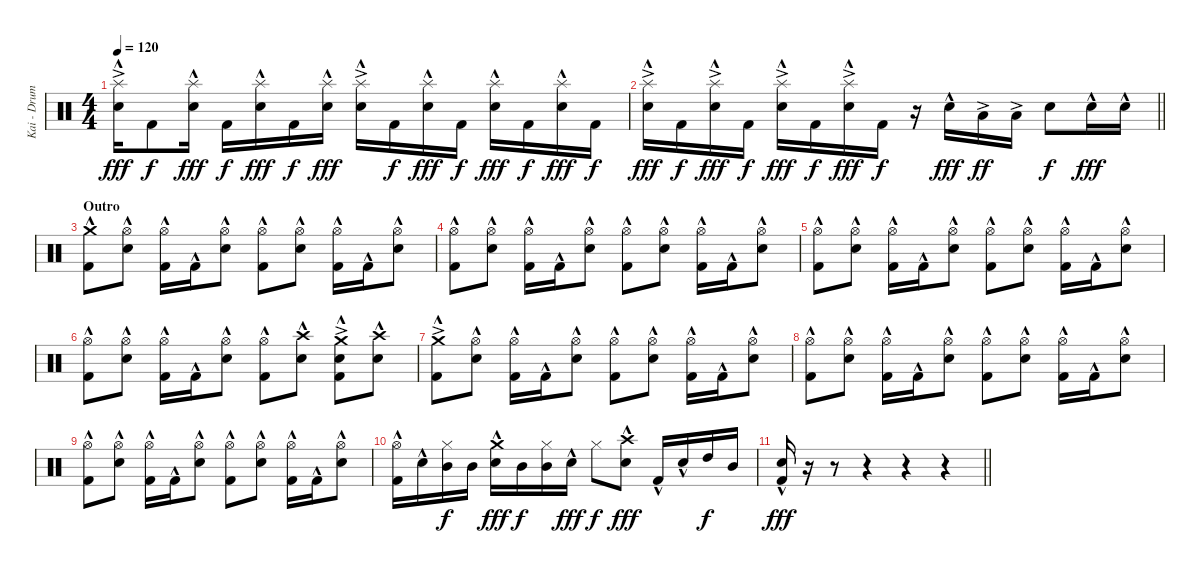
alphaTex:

\track ("Kai - Drums" "Kai - Drum") {instrument percussion}
\staff {score}
\articulation defaults
\ts (4 4)
\tempo 120
\clef neutral
\ks c
("Splash (hit)"{ac} "Electric Snare (hit)"{hac}).16{dy fff} "Kick (hit) 2".8{dy f} ("Splash (hit)" "Electric Snare (hit)"{hac}).16{dy fff} "Kick (hit) 2".16{dy f} ("Splash (hit)" "Electric Snare (hit)"{hac}).16{dy fff} "Kick (hit) 2".16{dy f} ("Splash (hit)" "Electric Snare (hit)"{hac}).16{dy fff} ("Splash (hit)"{ac} "Electric Snare (hit)"{hac}).16 "Kick (hit) 2".16{dy f} ("Splash (hit)" "Electric Snare (hit)"{hac}).16{dy fff} "Kick (hit) 2".16{dy f} ("Splash (hit)" "Electric Snare (hit)"{hac}).16{dy fff} "Kick (hit) 2".16{dy f} ("Splash (hit)" "Electric Snare (hit)"{hac}).16{dy fff} "Kick (hit) 2".16{dy f} |
\barLineRight lightlight
("Splash (hit)"{ac} "Electric Snare (hit)"{hac}).16{dy fff} "Kick (hit) 2".16{dy f} ("Splash (hit)"{ac} "Electric Snare (hit)"{hac}).16{dy fff} "Kick (hit) 2".16{dy f} ("Splash (hit)"{ac} "Electric Snare (hit)"{hac}).16{dy fff} "Kick (hit) 2".16{dy f} ("Splash (hit)"{ac} "Electric Snare (hit)"{hac}).16{dy fff} "Kick (hit) 2".16{dy f} r.16 "Electric Snare (hit)"{hac}.16{dy fff} "Low Tom (hit)"{ac}.16{dy ff} "Low Tom (hit)"{ac}.16 "Electric Snare (hit)".8{dy f} "Electric Snare (hit)"{hac}.16{dy fff} "Electric Snare (hit)"{hac}.16 |
\section ("" "Outro")
("Crash medium (hit)"{hac} "Kick (hit) 2"{hac}).8 ("Hi-Hat (open)" "Electric Snare (hit)"{hac}).8 ("Hi-Hat (open)" "Kick (hit) 2"{hac}).16 "Kick (hit) 2"{hac}.16 ("Hi-Hat (open)" "Electric Snare (hit)"{hac}).8 ("Hi-Hat (open)" "Kick (hit) 2"{hac}).8 ("Hi-Hat (open)" "Electric Snare (hit)"{hac}).8 ("Hi-Hat (open)" "Kick (hit) 2"{hac}).16 "Kick (hit) 2"{hac}.16 ("Hi-Hat (open)" "Electric Snare (hit)"{hac}).8 |
("Hi-Hat (open)" "Kick (hit) 2"{hac}).8 ("Hi-Hat (open)" "Electric Snare (hit)"{hac}).8 ("Hi-Hat (open)" "Kick (hit) 2"{hac}).16 "Kick (hit) 2"{hac}.16 ("Hi-Hat (open)" "Electric Snare (hit)"{hac}).8 ("Hi-Hat (open)" "Kick (hit) 2"{hac}).8 ("Hi-Hat (open)" "Electric Snare (hit)"{hac}).8 ("Hi-Hat (open)" "Kick (hit) 2"{hac}).16 "Kick (hit) 2"{hac}.16 ("Hi-Hat (open)" "Electric Snare (hit)"{hac}).8 |
("Hi-Hat (open)" "Kick (hit) 2"{hac}).8 ("Hi-Hat (open)" "Electric Snare (hit)"{hac}).8 ("Hi-Hat (open)" "Kick (hit) 2"{hac}).16 "Kick (hit) 2"{hac}.16 ("Hi-Hat (open)" "Electric Snare (hit)"{hac}).8 ("Hi-Hat (open)" "Kick (hit) 2"{hac}).8 ("Hi-Hat (open)" "Electric Snare (hit)"{hac}).8 ("Hi-Hat (open)" "Kick (hit) 2"{hac}).16 "Kick (hit) 2"{hac}.16 ("Hi-Hat (open)" "Electric Snare (hit)"{hac}).8 |
("Hi-Hat (open)" "Kick (hit) 2"{hac}).8 ("Hi-Hat (open)" "Electric Snare (hit)"{hac}).8 ("Hi-Hat (open)" "Kick (hit) 2"{hac}).16 "Kick (hit) 2"{hac}.16 ("Hi-Hat (open)" "Electric Snare (hit)"{hac}).8 ("Hi-Hat (open)" "Kick (hit) 2"{hac}).8 ("Crash high (hit)" "Electric Snare (hit)"{hac}).8 ("Crash medium (hit)"{ac} "Electric Snare (hit)" "Kick (hit) 2"{hac}).8 ("Crash high (hit)"{hac} "Electric Snare (hit)"{hac}).8 |
("Crash medium (hit)"{ac} "Kick (hit) 2"{hac}).8 ("Hi-Hat (open)" "Electric Snare (hit)"{hac}).8 ("Hi-Hat (open)" "Kick (hit) 2"{hac}).16 "Kick (hit) 2"{hac}.16 ("Hi-Hat (open)" "Electric Snare (hit)"{hac}).8 ("Hi-Hat (open)" "Kick (hit) 2"{hac}).8 ("Hi-Hat (open)" "Electric Snare (hit)"{hac}).8 ("Hi-Hat (open)" "Kick (hit) 2"{hac}).16 "Kick (hit) 2"{hac}.16 ("Hi-Hat (open)" "Electric Snare (hit)"{hac}).8 |
("Hi-Hat (open)" "Kick (hit) 2"{hac}).8 ("Hi-Hat (open)" "Electric Snare (hit)"{hac}).8 ("Hi-Hat (open)" "Kick (hit) 2"{hac}).16 "Kick (hit) 2"{hac}.16 ("Hi-Hat (open)" "Electric Snare (hit)"{hac}).8 ("Hi-Hat (open)" "Kick (hit) 2"{hac}).8 ("Hi-Hat (open)" "Electric Snare (hit)"{hac}).8 ("Hi-Hat (open)" "Kick (hit) 2"{hac}).16 "Kick (hit) 2"{hac}.16 ("Hi-Hat (open)" "Electric Snare (hit)"{hac}).8 |
("Hi-Hat (open)" "Kick (hit) 2"{hac}).8 ("Hi-Hat (open)" "Electric Snare (hit)"{hac}).8 ("Hi-Hat (open)" "Kick (hit) 2"{hac}).16 "Kick (hit) 2"{hac}.16 ("Hi-Hat (open)" "Electric Snare (hit)"{hac}).8 ("Hi-Hat (open)" "Kick (hit) 2"{hac}).8 ("Hi-Hat (open)" "Electric Snare (hit)"{hac}).8 ("Hi-Hat (open)" "Kick (hit) 2"{hac}).16 "Kick (hit) 2"{hac}.16 ("Hi-Hat (open)" "Electric Snare (hit)"{hac}).8 |
("Hi-Hat (open)" "Kick (hit) 2"{hac}).16 "Electric Snare (hit)"{hac}.16 ("Hi-Hat (closed)" "Mid Tom (hit)").16{dy f} "Mid Tom (hit)".16 ("Crash medium (hit)" "Electric Snare (hit)"{hac}).16{dy fff} "Mid Tom (hit)".16{dy f} ("Hi-Hat (closed)" "Mid Tom (hit)").16 "Electric Snare (hit)"{hac}.16{dy fff} "Hi-Hat (closed)".8{dy f} ("Crash high (hit)"{hac} "Electric Snare (hit)"{hac}).8{dy fff} "Kick (hit) 2"{hac}.16 "Electric Snare (hit)"{hac}.16 "High Tom (hit)".16{dy f} "Mid Tom (hit)".16 |
\barLineRight lightlight
("Electric Snare (hit)"{hac} "Kick (hit) 2").16{dy fff} r.16 r.8 r.4 r.4 r.4
